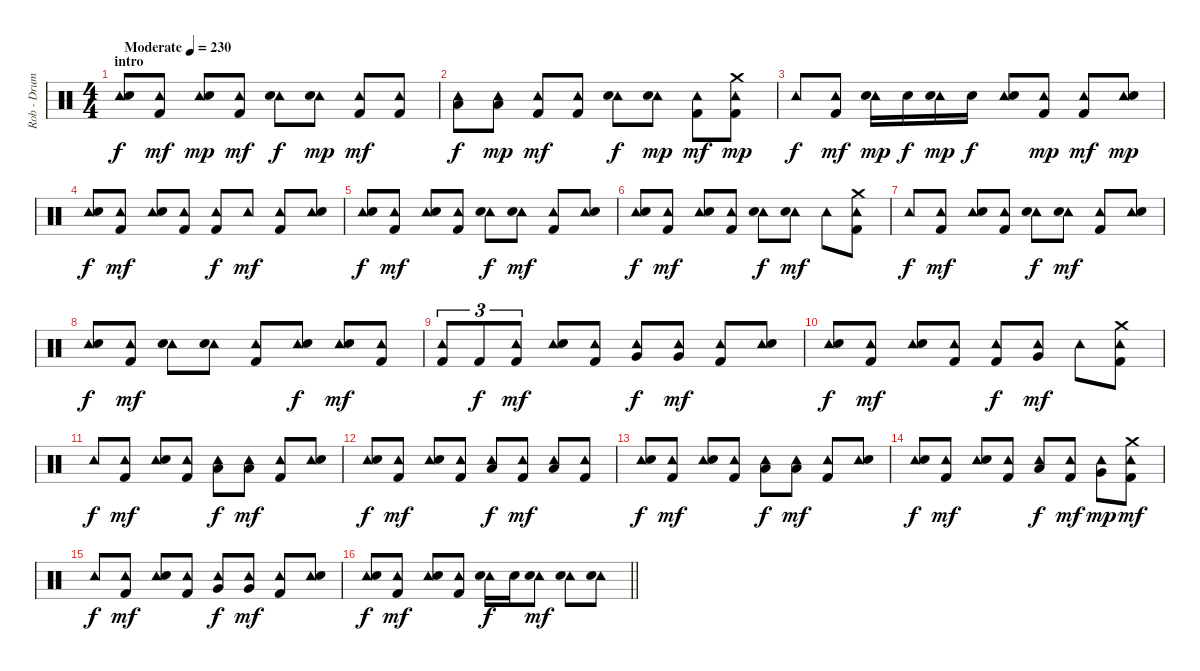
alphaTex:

\track ("Rob - Drums" "Rob - Drum") {instrument percussion}
\staff {score}
\articulation defaults
\ts (4 4)
\section ("" "intro")
\tempo (230 "Moderate")
\clef neutral
\ks c
("Tambourine (hit)" "Electric Snare (hit)").8{dy f} ("Tambourine (hit)" "Kick (hit) 2").8{dy mf} ("Tambourine (hit)" "Electric Snare (hit)").8{dy mp} ("Tambourine (hit)" "Kick (hit) 2").8{dy mf} ("Tambourine (hit)" "Electric Snare (hit)").8{dy f} ("Tambourine (hit)" "Electric Snare (hit)").8{dy mp} ("Tambourine (hit)" "Kick (hit) 2").8{dy mf} ("Tambourine (hit)" "Kick (hit) 2").8 |
("Tambourine (hit)" "Low Tom (hit)").8{dy f} ("Tambourine (hit)" "Low Tom (hit)").8{dy mp} ("Tambourine (hit)" "Kick (hit) 2").8{dy mf} ("Tambourine (hit)" "Kick (hit) 2").8 ("Tambourine (hit)" "Electric Snare (hit)").8{dy f} ("Tambourine (hit)" "Electric Snare (hit)").8{dy mp} ("Tambourine (hit)" "Kick (hit) 2").8{dy mf} ("Tambourine (hit)" "Crash medium (hit)" "Kick (hit) 2").8{dy mp} |
"Tambourine (hit)".8{dy f} ("Tambourine (hit)" "Kick (hit) 2").8{dy mf} ("Tambourine (hit)" "Electric Snare (hit)").16{dy mp} "Electric Snare (hit)".16{dy f} ("Tambourine (hit)" "Electric Snare (hit)").16{dy mp} "Electric Snare (hit)".16{dy f} ("Tambourine (hit)" "Electric Snare (hit)").8 ("Tambourine (hit)" "Kick (hit) 2").8{dy mp} ("Tambourine (hit)" "Kick (hit) 2").8{dy mf} ("Tambourine (hit)" "Electric Snare (hit)").8{dy mp} |
("Tambourine (hit)" "Electric Snare (hit)").8{dy f} ("Tambourine (hit)" "Kick (hit) 2").8{dy mf} ("Tambourine (hit)" "Electric Snare (hit)").8 ("Tambourine (hit)" "Kick (hit) 2").8 ("Tambourine (hit)" "Kick (hit) 2").8{dy f} "Tambourine (hit)".8{dy mf} ("Tambourine (hit)" "Kick (hit) 2").8 ("Tambourine (hit)" "Electric Snare (hit)").8 |
("Tambourine (hit)" "Electric Snare (hit)").8{dy f} ("Tambourine (hit)" "Kick (hit) 2").8{dy mf} ("Tambourine (hit)" "Electric Snare (hit)").8 ("Tambourine (hit)" "Kick (hit) 2").8 ("Tambourine (hit)" "Electric Snare (hit)").8{dy f} ("Tambourine (hit)" "Electric Snare (hit)").8{dy mf} ("Tambourine (hit)" "Kick (hit) 2").8 ("Tambourine (hit)" "Electric Snare (hit)").8 |
("Tambourine (hit)" "Electric Snare (hit)").8{dy f} ("Tambourine (hit)" "Kick (hit) 2").8{dy mf} ("Tambourine (hit)" "Electric Snare (hit)").8 ("Tambourine (hit)" "Kick (hit) 2").8 ("Tambourine (hit)" "Electric Snare (hit)").8{dy f} ("Tambourine (hit)" "Electric Snare (hit)").8{dy mf} "Tambourine (hit)".8 ("Tambourine (hit)" "Crash medium (hit)" "Kick (hit) 2").8 |
"Tambourine (hit)".8{dy f} ("Tambourine (hit)" "Kick (hit) 2").8{dy mf} ("Tambourine (hit)" "Electric Snare (hit)").8 ("Tambourine (hit)" "Kick (hit) 2").8 ("Tambourine (hit)" "Electric Snare (hit)").8{dy f} ("Tambourine (hit)" "Electric Snare (hit)").8{dy mf} ("Tambourine (hit)" "Kick (hit) 2").8 ("Tambourine (hit)" "Electric Snare (hit)").8 |
("Tambourine (hit)" "Electric Snare (hit)").8{dy f} ("Tambourine (hit)" "Kick (hit) 2").8{dy mf} ("Tambourine (hit)" "Electric Snare (hit)").8 ("Tambourine (hit)" "Electric Snare (hit)").8 ("Tambourine (hit)" "Kick (hit) 2").8 ("Tambourine (hit)" "Electric Snare (hit)").8{dy f} ("Tambourine (hit)" "Electric Snare (hit)").8{dy mf} ("Tambourine (hit)" "Kick (hit) 2").8 |
("Tambourine (hit)" "Kick (hit) 2").8{tu (3 2)} "Kick (hit) 2".8{tu (3 2) dy f} ("Tambourine (hit)" "Kick (hit) 2").8{tu (3 2) dy mf} ("Tambourine (hit)" "Electric Snare (hit)").8 ("Tambourine (hit)" "Kick (hit) 2").8 ("Tambourine (hit)" "Very Low Tom (hit)").8{dy f} ("Tambourine (hit)" "Very Low Tom (hit)").8{dy mf} ("Tambourine (hit)" "Kick (hit) 2").8 ("Tambourine (hit)" "Electric Snare (hit)").8 |
("Tambourine (hit)" "Electric Snare (hit)").8{dy f} ("Tambourine (hit)" "Kick (hit) 2").8{dy mf} ("Tambourine (hit)" "Electric Snare (hit)").8 ("Tambourine (hit)" "Kick (hit) 2").8 ("Tambourine (hit)" "Kick (hit) 2").8{dy f} ("Tambourine (hit)" "Very Low Tom (hit)").8{dy mf} "Tambourine (hit)".8 ("Tambourine (hit)" "Crash medium (hit)" "Kick (hit) 2").8 |
"Tambourine (hit)".8{dy f} ("Tambourine (hit)" "Kick (hit) 2").8{dy mf} ("Tambourine (hit)" "Electric Snare (hit)").8 ("Tambourine (hit)" "Kick (hit) 2").8 ("Tambourine (hit)" "Low Tom (hit)").8{dy f} ("Tambourine (hit)" "Low Tom (hit)").8{dy mf} ("Tambourine (hit)" "Kick (hit) 2").8 ("Tambourine (hit)" "Electric Snare (hit)").8 |
("Tambourine (hit)" "Electric Snare (hit)").8{dy f} ("Tambourine (hit)" "Kick (hit) 2").8{dy mf} ("Tambourine (hit)" "Electric Snare (hit)").8 ("Tambourine (hit)" "Kick (hit) 2").8 ("Tambourine (hit)" "Low Tom (hit)").8{dy f} ("Tambourine (hit)" "Kick (hit) 2").8{dy mf} ("Tambourine (hit)" "Low Tom (hit)").8 ("Tambourine (hit)" "Kick (hit) 2").8 |
("Tambourine (hit)" "Electric Snare (hit)").8{dy f} ("Tambourine (hit)" "Kick (hit) 2").8{dy mf} ("Tambourine (hit)" "Electric Snare (hit)").8 ("Tambourine (hit)" "Kick (hit) 2").8 ("Tambourine (hit)" "Low Tom (hit)").8{dy f} ("Tambourine (hit)" "Low Tom (hit)").8{dy mf} ("Tambourine (hit)" "Kick (hit) 2").8 ("Tambourine (hit)" "Electric Snare (hit)").8 |
("Tambourine (hit)" "Electric Snare (hit)").8{dy f} ("Tambourine (hit)" "Kick (hit) 2").8{dy mf} ("Tambourine (hit)" "Electric Snare (hit)").8 ("Tambourine (hit)" "Kick (hit) 2").8 ("Tambourine (hit)" "Low Tom (hit)").8{dy f} ("Tambourine (hit)" "Kick (hit) 2").8{dy mf} ("Tambourine (hit)" "Very Low Tom (hit)").8{dy mp} ("Tambourine (hit)" "Crash medium (hit)" "Kick (hit) 2").8{dy mf} |
"Tambourine (hit)".8{dy f} ("Tambourine (hit)" "Kick (hit) 2").8{dy mf} ("Tambourine (hit)" "Electric Snare (hit)").8 ("Tambourine (hit)" "Kick (hit) 2").8 ("Tambourine (hit)" "Very Low Tom (hit)").8{dy f} ("Tambourine (hit)" "Very Low Tom (hit)").8{dy mf} ("Tambourine (hit)" "Kick (hit) 2").8 ("Tambourine (hit)" "Electric Snare (hit)").8 |
\barLineRight lightlight
("Tambourine (hit)" "Electric Snare (hit)").8{dy f} ("Tambourine (hit)" "Kick (hit) 2").8{dy mf} ("Tambourine (hit)" "Electric Snare (hit)").8 ("Tambourine (hit)" "Kick (hit) 2").8 ("Tambourine (hit)" "Electric Snare (hit)").16{dy f} "Electric Snare (hit)".16 ("Tambourine (hit)" "Electric Snare (hit)").8{dy mf} ("Tambourine (hit)" "Electric Snare (hit)").8 ("Tambourine (hit)" "Electric Snare (hit)").8
